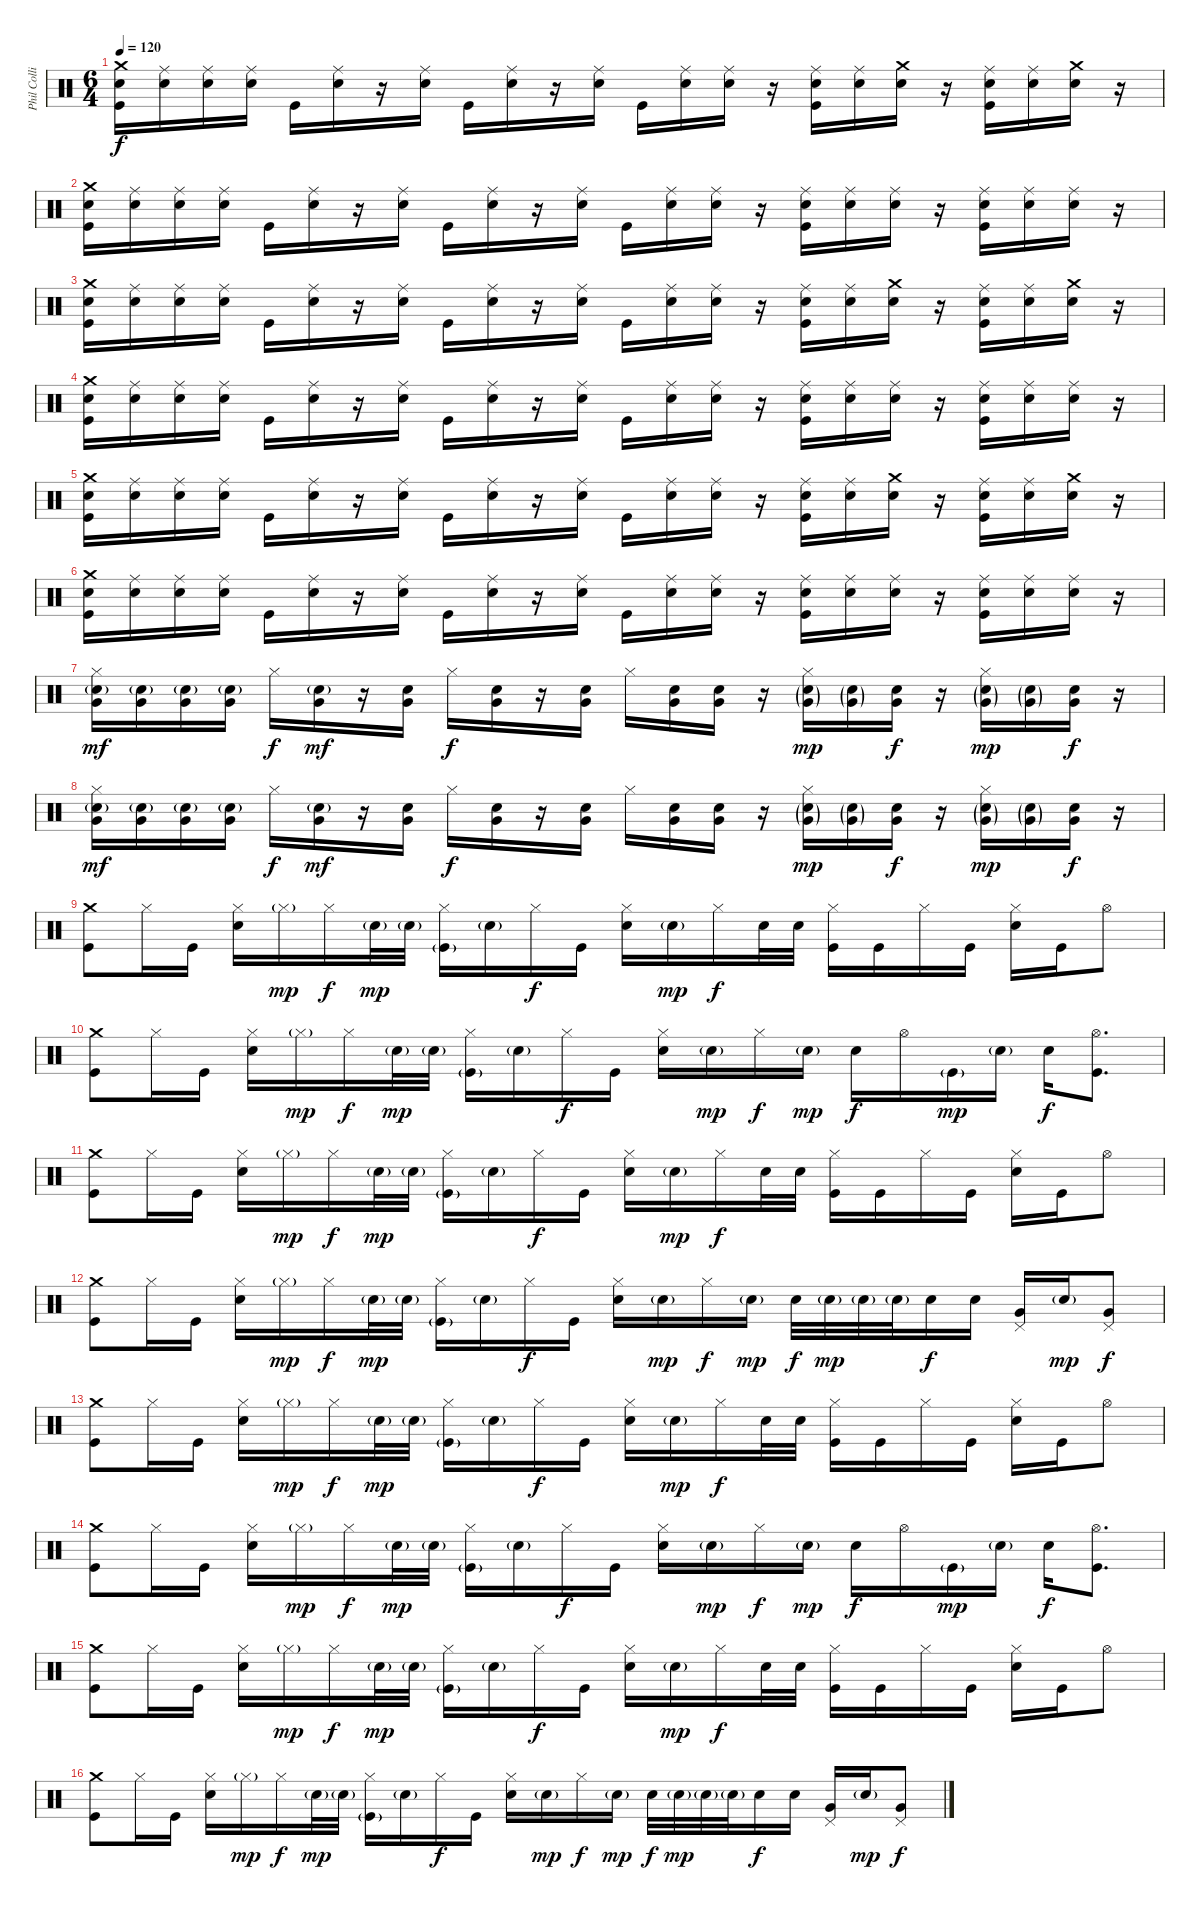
\track ("Phil Collins" "Phil Colli") {instrument percussion}
\staff
\articulation defaults
\ts (6 4)
\tempo 120
\clef neutral
\ks c
("Electric Snare (hit)" "Crash medium (hit)" "Kick (hit)").16{dy f} ("Electric Snare (hit)" "Ride (middle)").16 ("Electric Snare (hit)" "Ride (middle)").16 ("Electric Snare (hit)" "Ride (middle)").16 "Kick (hit)".16 ("Electric Snare (hit)" "Ride (middle)").16 r.16 ("Electric Snare (hit)" "Ride (middle)").16 "Kick (hit)".16 ("Electric Snare (hit)" "Ride (middle)").16 r.16 ("Electric Snare (hit)" "Ride (middle)").16 "Kick (hit)".16 ("Electric Snare (hit)" "Ride (middle)").16 ("Electric Snare (hit)" "Ride (middle)").16 r.16 ("Electric Snare (hit)" "Ride (middle)" "Kick (hit)").16 ("Electric Snare (hit)" "Ride (middle)").16 ("Electric Snare (hit)" "Crash medium (hit)").16 r.16 ("Electric Snare (hit)" "Ride (middle)" "Kick (hit)").16 ("Electric Snare (hit)" "Ride (middle)").16 ("Electric Snare (hit)" "Crash medium (hit)").16 r.16 |
("Electric Snare (hit)" "Crash medium (hit)" "Kick (hit)").16 ("Electric Snare (hit)" "Ride (middle)").16 ("Electric Snare (hit)" "Ride (middle)").16 ("Electric Snare (hit)" "Ride (middle)").16 "Kick (hit)".16 ("Electric Snare (hit)" "Ride (middle)").16 r.16 ("Electric Snare (hit)" "Ride (middle)").16 "Kick (hit)".16 ("Electric Snare (hit)" "Ride (middle)").16 r.16 ("Electric Snare (hit)" "Ride (middle)").16 "Kick (hit)".16 ("Electric Snare (hit)" "Ride (middle)").16 ("Electric Snare (hit)" "Ride (middle)").16 r.16 ("Electric Snare (hit)" "Ride (middle)" "Kick (hit)").16 ("Electric Snare (hit)" "Ride (middle)").16 ("Electric Snare (hit)" "Ride (middle)").16 r.16 ("Electric Snare (hit)" "Ride (middle)" "Kick (hit)").16 ("Electric Snare (hit)" "Ride (middle)").16 ("Electric Snare (hit)" "Ride (middle)").16 r.16 |
("Electric Snare (hit)" "Crash medium (hit)" "Kick (hit)").16 ("Electric Snare (hit)" "Ride (middle)").16 ("Electric Snare (hit)" "Ride (middle)").16 ("Electric Snare (hit)" "Ride (middle)").16 "Kick (hit)".16 ("Electric Snare (hit)" "Ride (middle)").16 r.16 ("Electric Snare (hit)" "Ride (middle)").16 "Kick (hit)".16 ("Electric Snare (hit)" "Ride (middle)").16 r.16 ("Electric Snare (hit)" "Ride (middle)").16 "Kick (hit)".16 ("Electric Snare (hit)" "Ride (middle)").16 ("Electric Snare (hit)" "Ride (middle)").16 r.16 ("Electric Snare (hit)" "Ride (middle)" "Kick (hit)").16 ("Electric Snare (hit)" "Ride (middle)").16 ("Electric Snare (hit)" "Crash medium (hit)").16 r.16 ("Electric Snare (hit)" "Ride (middle)" "Kick (hit)").16 ("Electric Snare (hit)" "Ride (middle)").16 ("Electric Snare (hit)" "Crash medium (hit)").16 r.16 |
("Electric Snare (hit)" "Crash medium (hit)" "Kick (hit)").16 ("Electric Snare (hit)" "Ride (middle)").16 ("Electric Snare (hit)" "Ride (middle)").16 ("Electric Snare (hit)" "Ride (middle)").16 "Kick (hit)".16 ("Electric Snare (hit)" "Ride (middle)").16 r.16 ("Electric Snare (hit)" "Ride (middle)").16 "Kick (hit)".16 ("Electric Snare (hit)" "Ride (middle)").16 r.16 ("Electric Snare (hit)" "Ride (middle)").16 "Kick (hit)".16 ("Electric Snare (hit)" "Ride (middle)").16 ("Electric Snare (hit)" "Ride (middle)").16 r.16 ("Electric Snare (hit)" "Ride (middle)" "Kick (hit)").16 ("Electric Snare (hit)" "Ride (middle)").16 ("Electric Snare (hit)" "Ride (middle)").16 r.16 ("Electric Snare (hit)" "Ride (middle)" "Kick (hit)").16 ("Electric Snare (hit)" "Ride (middle)").16 ("Electric Snare (hit)" "Ride (middle)").16 r.16 |
("Electric Snare (hit)" "Crash medium (hit)" "Kick (hit)").16 ("Electric Snare (hit)" "Ride (middle)").16 ("Electric Snare (hit)" "Ride (middle)").16 ("Electric Snare (hit)" "Ride (middle)").16 "Kick (hit)".16 ("Electric Snare (hit)" "Ride (middle)").16 r.16 ("Electric Snare (hit)" "Ride (middle)").16 "Kick (hit)".16 ("Electric Snare (hit)" "Ride (middle)").16 r.16 ("Electric Snare (hit)" "Ride (middle)").16 "Kick (hit)".16 ("Electric Snare (hit)" "Ride (middle)").16 ("Electric Snare (hit)" "Ride (middle)").16 r.16 ("Electric Snare (hit)" "Ride (middle)" "Kick (hit)").16 ("Electric Snare (hit)" "Ride (middle)").16 ("Electric Snare (hit)" "Crash medium (hit)").16 r.16 ("Electric Snare (hit)" "Ride (middle)" "Kick (hit)").16 ("Electric Snare (hit)" "Ride (middle)").16 ("Electric Snare (hit)" "Crash medium (hit)").16 r.16 |
("Electric Snare (hit)" "Crash medium (hit)" "Kick (hit)").16 ("Electric Snare (hit)" "Ride (middle)").16 ("Electric Snare (hit)" "Ride (middle)").16 ("Electric Snare (hit)" "Ride (middle)").16 "Kick (hit)".16 ("Electric Snare (hit)" "Ride (middle)").16 r.16 ("Electric Snare (hit)" "Ride (middle)").16 "Kick (hit)".16 ("Electric Snare (hit)" "Ride (middle)").16 r.16 ("Electric Snare (hit)" "Ride (middle)").16 "Kick (hit)".16 ("Electric Snare (hit)" "Ride (middle)").16 ("Electric Snare (hit)" "Ride (middle)").16 r.16 ("Electric Snare (hit)" "Ride (middle)" "Kick (hit)").16 ("Electric Snare (hit)" "Ride (middle)").16 ("Electric Snare (hit)" "Ride (middle)").16 r.16 ("Electric Snare (hit)" "Ride (middle)" "Kick (hit)").16 ("Electric Snare (hit)" "Ride (middle)").16 ("Electric Snare (hit)" "Ride (middle)").16 r.16 |
("Electric Snare (hit)"{g} "Very Low Tom (hit)" "Hi-Hat (closed)").16{dy mf} ("Electric Snare (hit)"{g} "Very Low Tom (hit)").16 ("Electric Snare (hit)"{g} "Very Low Tom (hit)").16 ("Electric Snare (hit)"{g} "Very Low Tom (hit)").16 "Hi-Hat (closed)".16{dy f} ("Electric Snare (hit)"{g} "Very Low Tom (hit)").16{dy mf} r.16 ("Electric Snare (hit)" "Very Low Tom (hit)").16 "Hi-Hat (closed)".16{dy f} ("Electric Snare (hit)" "Very Low Tom (hit)").16 r.16 ("Electric Snare (hit)" "Very Low Tom (hit)").16 "Hi-Hat (closed)".16 ("Electric Snare (hit)" "Very Low Tom (hit)").16 ("Electric Snare (hit)" "Very Low Tom (hit)").16 r.16 ("Electric Snare (hit)"{g} "Very Low Tom (hit)"{g} "Hi-Hat (closed)").16{dy mp} ("Electric Snare (hit)"{g} "Very Low Tom (hit)"{g}).16 ("Electric Snare (hit)" "Very Low Tom (hit)").16{dy f} r.16 ("Electric Snare (hit)"{g} "Very Low Tom (hit)"{g} "Hi-Hat (closed)").16{dy mp} ("Electric Snare (hit)"{g} "Very Low Tom (hit)"{g}).16 ("Electric Snare (hit)" "Very Low Tom (hit)").16{dy f} r.16 |
("Electric Snare (hit)"{g} "Very Low Tom (hit)" "Hi-Hat (closed)").16{dy mf} ("Electric Snare (hit)"{g} "Very Low Tom (hit)").16 ("Electric Snare (hit)"{g} "Very Low Tom (hit)").16 ("Electric Snare (hit)"{g} "Very Low Tom (hit)").16 "Hi-Hat (closed)".16{dy f} ("Electric Snare (hit)"{g} "Very Low Tom (hit)").16{dy mf} r.16 ("Electric Snare (hit)" "Very Low Tom (hit)").16 "Hi-Hat (closed)".16{dy f} ("Electric Snare (hit)" "Very Low Tom (hit)").16 r.16 ("Electric Snare (hit)" "Very Low Tom (hit)").16 "Hi-Hat (closed)".16 ("Electric Snare (hit)" "Very Low Tom (hit)").16 ("Electric Snare (hit)" "Very Low Tom (hit)").16 r.16 ("Electric Snare (hit)"{g} "Very Low Tom (hit)"{g} "Hi-Hat (closed)").16{dy mp} ("Electric Snare (hit)"{g} "Very Low Tom (hit)"{g}).16 ("Electric Snare (hit)" "Very Low Tom (hit)").16{dy f} r.16 ("Electric Snare (hit)"{g} "Very Low Tom (hit)"{g} "Hi-Hat (closed)").16{dy mp} ("Electric Snare (hit)"{g} "Very Low Tom (hit)"{g}).16 ("Electric Snare (hit)" "Very Low Tom (hit)").16{dy f} r.16 |
("Crash medium (hit)" "Kick (hit)").8 "Hi-Hat (closed)".16 "Kick (hit)".16 ("Hi-Hat (closed)" "Electric Snare (hit)").16 "Hi-Hat (closed)"{g}.16{dy mp} "Hi-Hat (closed)".16{dy f} "Electric Snare (hit)"{g}.32{dy mp} "Electric Snare (hit)"{g}.32 ("Hi-Hat (closed)" "Kick (hit)"{g}).16 "Electric Snare (hit)"{g}.16 "Hi-Hat (closed)".16{dy f} "Kick (hit)".16 ("Hi-Hat (closed)" "Electric Snare (hit)").16 "Electric Snare (hit)"{g}.16{dy mp} "Hi-Hat (closed)".16{dy f} "Electric Snare (hit)".32 "Electric Snare (hit)".32 ("Hi-Hat (closed)" "Kick (hit)").16 "Kick (hit)".16 "Hi-Hat (closed)".16 "Kick (hit)".16 ("Hi-Hat (closed)" "Electric Snare (hit)").16 "Kick (hit)".16 "Hi-Hat (open)".8 |
("Crash medium (hit)" "Kick (hit)").8 "Hi-Hat (closed)".16 "Kick (hit)".16 ("Hi-Hat (closed)" "Electric Snare (hit)").16 "Hi-Hat (closed)"{g}.16{dy mp} "Hi-Hat (closed)".16{dy f} "Electric Snare (hit)"{g}.32{dy mp} "Electric Snare (hit)"{g}.32 ("Hi-Hat (closed)" "Kick (hit)"{g}).16 "Electric Snare (hit)"{g}.16 "Hi-Hat (closed)".16{dy f} "Kick (hit)".16 ("Hi-Hat (closed)" "Electric Snare (hit)").16 "Electric Snare (hit)"{g}.16{dy mp} "Hi-Hat (closed)".16{dy f} "Electric Snare (hit)"{g}.16{dy mp} "Electric Snare (hit)".16{dy f} "Hi-Hat (open)".16 "Kick (hit)"{g}.16{dy mp} "Electric Snare (hit)"{g}.16 "Electric Snare (hit)".16{dy f} ("Hi-Hat (open)" "Kick (hit)").8{d} |
("Crash medium (hit)" "Kick (hit)").8 "Hi-Hat (closed)".16 "Kick (hit)".16 ("Hi-Hat (closed)" "Electric Snare (hit)").16 "Hi-Hat (closed)"{g}.16{dy mp} "Hi-Hat (closed)".16{dy f} "Electric Snare (hit)"{g}.32{dy mp} "Electric Snare (hit)"{g}.32 ("Hi-Hat (closed)" "Kick (hit)"{g}).16 "Electric Snare (hit)"{g}.16 "Hi-Hat (closed)".16{dy f} "Kick (hit)".16 ("Hi-Hat (closed)" "Electric Snare (hit)").16 "Electric Snare (hit)"{g}.16{dy mp} "Hi-Hat (closed)".16{dy f} "Electric Snare (hit)".32 "Electric Snare (hit)".32 ("Hi-Hat (closed)" "Kick (hit)").16 "Kick (hit)".16 "Hi-Hat (closed)".16 "Kick (hit)".16 ("Hi-Hat (closed)" "Electric Snare (hit)").16 "Kick (hit)".16 "Hi-Hat (open)".8 |
("Crash medium (hit)" "Kick (hit)").8 "Hi-Hat (closed)".16 "Kick (hit)".16 ("Hi-Hat (closed)" "Electric Snare (hit)").16 "Hi-Hat (closed)"{g}.16{dy mp} "Hi-Hat (closed)".16{dy f} "Electric Snare (hit)"{g}.32{dy mp} "Electric Snare (hit)"{g}.32 ("Hi-Hat (closed)" "Kick (hit)"{g}).16 "Electric Snare (hit)"{g}.16 "Hi-Hat (closed)".16{dy f} "Kick (hit)".16 ("Hi-Hat (closed)" "Electric Snare (hit)").16 "Electric Snare (hit)"{g}.16{dy mp} "Hi-Hat (closed)".16{dy f} "Electric Snare (hit)"{g}.16{dy mp} "Electric Snare (hit)".32{dy f} "Electric Snare (hit)"{g}.32{dy mp} "Electric Snare (hit)"{g}.32 "Electric Snare (hit)"{g}.32 "Electric Snare (hit)".16{dy f} "Electric Snare (hit)".16 ("Pedal Hi-Hat (hit)" "Very Low Tom (hit)").16 "Electric Snare (hit)"{g}.16{dy mp} ("Pedal Hi-Hat (hit)" "Very Low Tom (hit)").8{dy f} |
("Crash medium (hit)" "Kick (hit)").8 "Hi-Hat (closed)".16 "Kick (hit)".16 ("Hi-Hat (closed)" "Electric Snare (hit)").16 "Hi-Hat (closed)"{g}.16{dy mp} "Hi-Hat (closed)".16{dy f} "Electric Snare (hit)"{g}.32{dy mp} "Electric Snare (hit)"{g}.32 ("Hi-Hat (closed)" "Kick (hit)"{g}).16 "Electric Snare (hit)"{g}.16 "Hi-Hat (closed)".16{dy f} "Kick (hit)".16 ("Hi-Hat (closed)" "Electric Snare (hit)").16 "Electric Snare (hit)"{g}.16{dy mp} "Hi-Hat (closed)".16{dy f} "Electric Snare (hit)".32 "Electric Snare (hit)".32 ("Hi-Hat (closed)" "Kick (hit)").16 "Kick (hit)".16 "Hi-Hat (closed)".16 "Kick (hit)".16 ("Hi-Hat (closed)" "Electric Snare (hit)").16 "Kick (hit)".16 "Hi-Hat (open)".8 |
("Crash medium (hit)" "Kick (hit)").8 "Hi-Hat (closed)".16 "Kick (hit)".16 ("Hi-Hat (closed)" "Electric Snare (hit)").16 "Hi-Hat (closed)"{g}.16{dy mp} "Hi-Hat (closed)".16{dy f} "Electric Snare (hit)"{g}.32{dy mp} "Electric Snare (hit)"{g}.32 ("Hi-Hat (closed)" "Kick (hit)"{g}).16 "Electric Snare (hit)"{g}.16 "Hi-Hat (closed)".16{dy f} "Kick (hit)".16 ("Hi-Hat (closed)" "Electric Snare (hit)").16 "Electric Snare (hit)"{g}.16{dy mp} "Hi-Hat (closed)".16{dy f} "Electric Snare (hit)"{g}.16{dy mp} "Electric Snare (hit)".16{dy f} "Hi-Hat (open)".16 "Kick (hit)"{g}.16{dy mp} "Electric Snare (hit)"{g}.16 "Electric Snare (hit)".16{dy f} ("Hi-Hat (open)" "Kick (hit)").8{d} |
("Crash medium (hit)" "Kick (hit)").8 "Hi-Hat (closed)".16 "Kick (hit)".16 ("Hi-Hat (closed)" "Electric Snare (hit)").16 "Hi-Hat (closed)"{g}.16{dy mp} "Hi-Hat (closed)".16{dy f} "Electric Snare (hit)"{g}.32{dy mp} "Electric Snare (hit)"{g}.32 ("Hi-Hat (closed)" "Kick (hit)"{g}).16 "Electric Snare (hit)"{g}.16 "Hi-Hat (closed)".16{dy f} "Kick (hit)".16 ("Hi-Hat (closed)" "Electric Snare (hit)").16 "Electric Snare (hit)"{g}.16{dy mp} "Hi-Hat (closed)".16{dy f} "Electric Snare (hit)".32 "Electric Snare (hit)".32 ("Hi-Hat (closed)" "Kick (hit)").16 "Kick (hit)".16 "Hi-Hat (closed)".16 "Kick (hit)".16 ("Hi-Hat (closed)" "Electric Snare (hit)").16 "Kick (hit)".16 "Hi-Hat (open)".8 |
("Crash medium (hit)" "Kick (hit)").8 "Hi-Hat (closed)".16 "Kick (hit)".16 ("Hi-Hat (closed)" "Electric Snare (hit)").16 "Hi-Hat (closed)"{g}.16{dy mp} "Hi-Hat (closed)".16{dy f} "Electric Snare (hit)"{g}.32{dy mp} "Electric Snare (hit)"{g}.32 ("Hi-Hat (closed)" "Kick (hit)"{g}).16 "Electric Snare (hit)"{g}.16 "Hi-Hat (closed)".16{dy f} "Kick (hit)".16 ("Hi-Hat (closed)" "Electric Snare (hit)").16 "Electric Snare (hit)"{g}.16{dy mp} "Hi-Hat (closed)".16{dy f} "Electric Snare (hit)"{g}.16{dy mp} "Electric Snare (hit)".32{dy f} "Electric Snare (hit)"{g}.32{dy mp} "Electric Snare (hit)"{g}.32 "Electric Snare (hit)"{g}.32 "Electric Snare (hit)".16{dy f} "Electric Snare (hit)".16 ("Pedal Hi-Hat (hit)" "Very Low Tom (hit)").16 "Electric Snare (hit)"{g}.16{dy mp} ("Pedal Hi-Hat (hit)" "Very Low Tom (hit)").8{dy f}
